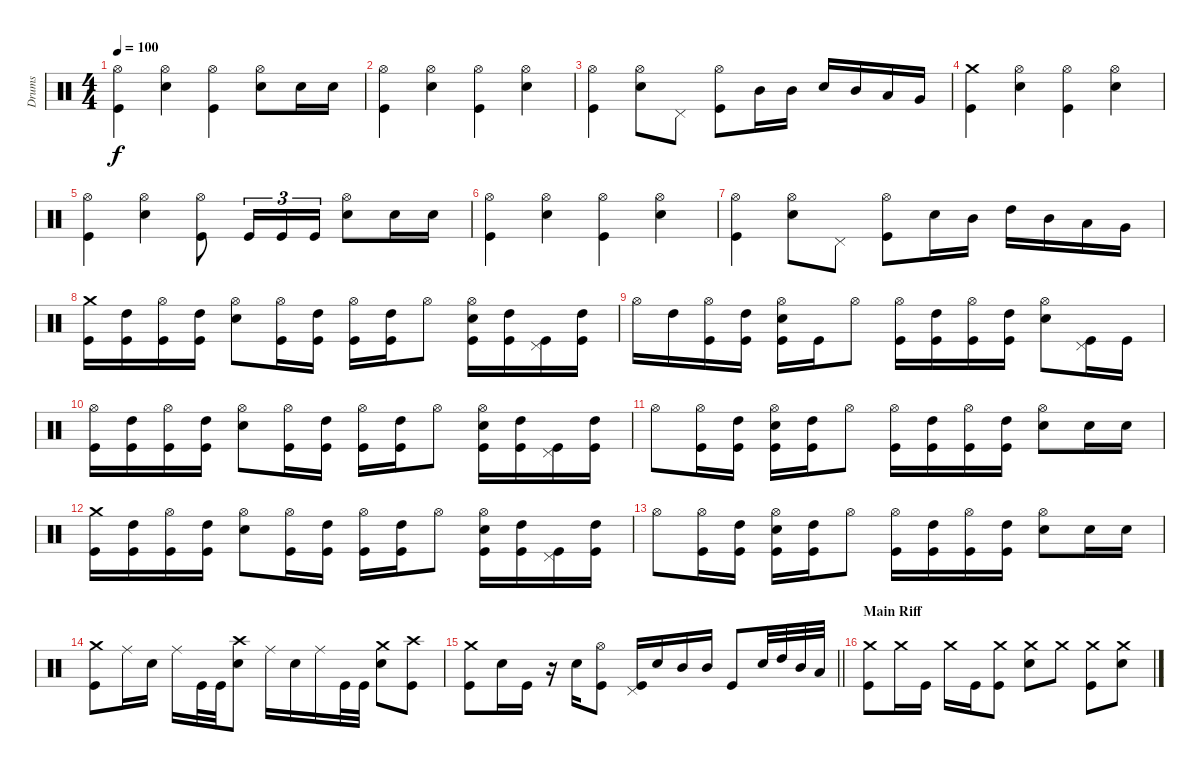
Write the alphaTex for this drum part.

\track ("Drums" "Drums") {instrument percussion}
\staff {score}
\articulation defaults
\ts (4 4)
\tempo 100
\clef neutral
\ks c
("Hi-Hat (open)" "Kick (hit)").4{dy f} ("Hi-Hat (open)" "Electric Snare (hit)").4 ("Hi-Hat (open)" "Kick (hit)").4 ("Hi-Hat (open)" "Electric Snare (hit)").8 "Electric Snare (hit)".16 "Electric Snare (hit)".16 |
("Hi-Hat (open)" "Kick (hit)").4 ("Hi-Hat (open)" "Electric Snare (hit)").4 ("Hi-Hat (open)" "Kick (hit)").4 ("Hi-Hat (open)" "Electric Snare (hit)").4 |
("Hi-Hat (open)" "Kick (hit)").4 ("Hi-Hat (open)" "Electric Snare (hit)").8 "Pedal Hi-Hat (hit)".8 ("Hi-Hat (open)" "Kick (hit)").8 "Mid Tom (hit)".16 "Mid Tom (hit)".16 "Electric Snare (hit)".16 "Mid Tom (hit)".16 "Low Tom (hit)".16 "Very Low Tom (hit)".16 |
("Crash medium (hit)" "Kick (hit)").4 ("Hi-Hat (open)" "Electric Snare (hit)").4 ("Hi-Hat (open)" "Kick (hit)").4 ("Hi-Hat (open)" "Electric Snare (hit)").4 |
("Hi-Hat (open)" "Kick (hit)").4 ("Hi-Hat (open)" "Electric Snare (hit)").4 ("Hi-Hat (open)" "Kick (hit)").8 "Kick (hit)".16{tu (3 2)} "Kick (hit)".16{tu (3 2)} "Kick (hit)".16{tu (3 2)} ("Hi-Hat (open)" "Electric Snare (hit)").8 "Electric Snare (hit)".16 "Electric Snare (hit)".16 |
("Hi-Hat (open)" "Kick (hit)").4 ("Hi-Hat (open)" "Electric Snare (hit)").4 ("Hi-Hat (open)" "Kick (hit)").4 ("Hi-Hat (open)" "Electric Snare (hit)").4 |
("Hi-Hat (open)" "Kick (hit)").4 ("Hi-Hat (open)" "Electric Snare (hit)").8 "Pedal Hi-Hat (hit)".8 ("Hi-Hat (open)" "Kick (hit)").8 "Electric Snare (hit)".16 "Mid Tom (hit)".16 "High Tom (hit)".16 "Mid Tom (hit)".16 "Low Tom (hit)".16 "Very Low Tom (hit)".16 |
("Crash medium (hit)" "Kick (hit)").16 ("High Tom (hit)" "Kick (hit)").16 ("Hi-Hat (open)" "Kick (hit)").16 ("High Tom (hit)" "Kick (hit)").16 ("Hi-Hat (open)" "Electric Snare (hit)").8 ("Hi-Hat (open)" "Kick (hit)").16 ("High Tom (hit)" "Kick (hit)").16 ("Hi-Hat (open)" "Kick (hit)").16 ("High Tom (hit)" "Kick (hit)").16 "Hi-Hat (open)".8 ("Hi-Hat (open)" "Electric Snare (hit)" "Kick (hit)").16 ("High Tom (hit)" "Kick (hit)").16 ("Pedal Hi-Hat (hit)" "Kick (hit)").16 ("High Tom (hit)" "Kick (hit)").16 |
"Hi-Hat (open)".16 "High Tom (hit)".16 ("Hi-Hat (open)" "Kick (hit)").16 ("High Tom (hit)" "Kick (hit)").16 ("Hi-Hat (open)" "Electric Snare (hit)" "Kick (hit)").16 "Kick (hit)".16 "Hi-Hat (open)".8 ("Hi-Hat (open)" "Kick (hit)").16 ("High Tom (hit)" "Kick (hit)").16 ("Hi-Hat (open)" "Kick (hit)").16 ("High Tom (hit)" "Kick (hit)").16 ("Hi-Hat (open)" "Electric Snare (hit)").8 ("Pedal Hi-Hat (hit)" "Kick (hit)").16 "Kick (hit)".16 |
("Hi-Hat (open)" "Kick (hit)").16 ("High Tom (hit)" "Kick (hit)").16 ("Hi-Hat (open)" "Kick (hit)").16 ("High Tom (hit)" "Kick (hit)").16 ("Hi-Hat (open)" "Electric Snare (hit)").8 ("Hi-Hat (open)" "Kick (hit)").16 ("High Tom (hit)" "Kick (hit)").16 ("Hi-Hat (open)" "Kick (hit)").16 ("High Tom (hit)" "Kick (hit)").16 "Hi-Hat (open)".8 ("Hi-Hat (open)" "Electric Snare (hit)" "Kick (hit)").16 ("High Tom (hit)" "Kick (hit)").16 ("Pedal Hi-Hat (hit)" "Kick (hit)").16 ("High Tom (hit)" "Kick (hit)").16 |
"Hi-Hat (open)".8 ("Hi-Hat (open)" "Kick (hit)").16 ("High Tom (hit)" "Kick (hit)").16 ("Hi-Hat (open)" "Electric Snare (hit)" "Kick (hit)").16 ("High Tom (hit)" "Kick (hit)").16 "Hi-Hat (open)".8 ("Hi-Hat (open)" "Kick (hit)").16 ("High Tom (hit)" "Kick (hit)").16 ("Hi-Hat (open)" "Kick (hit)").16 ("High Tom (hit)" "Kick (hit)").16 ("Hi-Hat (open)" "Electric Snare (hit)").8 "Electric Snare (hit)".16 "Electric Snare (hit)".16 |
("Crash medium (hit)" "Kick (hit)").16 ("High Tom (hit)" "Kick (hit)").16 ("Hi-Hat (open)" "Kick (hit)").16 ("High Tom (hit)" "Kick (hit)").16 ("Hi-Hat (open)" "Electric Snare (hit)").8 ("Hi-Hat (open)" "Kick (hit)").16 ("High Tom (hit)" "Kick (hit)").16 ("Hi-Hat (open)" "Kick (hit)").16 ("High Tom (hit)" "Kick (hit)").16 "Hi-Hat (open)".8 ("Hi-Hat (open)" "Electric Snare (hit)" "Kick (hit)").16 ("High Tom (hit)" "Kick (hit)").16 ("Pedal Hi-Hat (hit)" "Kick (hit)").16 ("High Tom (hit)" "Kick (hit)").16 |
"Hi-Hat (open)".8 ("Hi-Hat (open)" "Kick (hit)").16 ("High Tom (hit)" "Kick (hit)").16 ("Hi-Hat (open)" "Electric Snare (hit)" "Kick (hit)").16 ("High Tom (hit)" "Kick (hit)").16 "Hi-Hat (open)".8 ("Hi-Hat (open)" "Kick (hit)").16 ("High Tom (hit)" "Kick (hit)").16 ("Hi-Hat (open)" "Kick (hit)").16 ("High Tom (hit)" "Kick (hit)").16 ("Hi-Hat (open)" "Electric Snare (hit)").8 "Electric Snare (hit)".16 "Electric Snare (hit)".16 |
("Crash medium (hit)" "Kick (hit)").8 "Ride (middle)".16 "Electric Snare (hit)".16 "Ride (middle)".16 "Kick (hit)".32 "Kick (hit)".32 ("Crash high (hit)" "Electric Snare (hit)").8 "Ride (middle)".16 "Electric Snare (hit)".16 "Ride (middle)".16 "Kick (hit)".32 "Kick (hit)".32 ("Crash medium (hit)" "Electric Snare (hit)").8 ("Crash high (hit)" "Kick (hit)").8 |
\barLineRight lightlight
("Crash medium (hit)" "Kick (hit)").8 "Electric Snare (hit)".16 "Kick (hit)".16 r.16 "Electric Snare (hit)".16 ("Hi-Hat (open)" "Kick (hit)").8 ("Pedal Hi-Hat (hit)" "Kick (hit)").16 "Electric Snare (hit)".16 "Mid Tom (hit)".16 "Mid Tom (hit)".16 "Kick (hit)".8 "Electric Snare (hit)".32 "High Tom (hit)".32 "Mid Tom (hit)".32 "Low Tom (hit)".32 |
\section ("" "Main Riff")
("Crash medium (hit)" "Kick (hit)").8 "Crash medium (hit)".16 "Kick (hit)".16 "Crash medium (hit)".16 "Kick (hit)".16 ("Crash medium (hit)" "Kick (hit)").8 ("Crash medium (hit)" "Electric Snare (hit)").8 "Crash medium (hit)".8 ("Crash medium (hit)" "Kick (hit)").8 ("Crash medium (hit)" "Electric Snare (hit)").8
